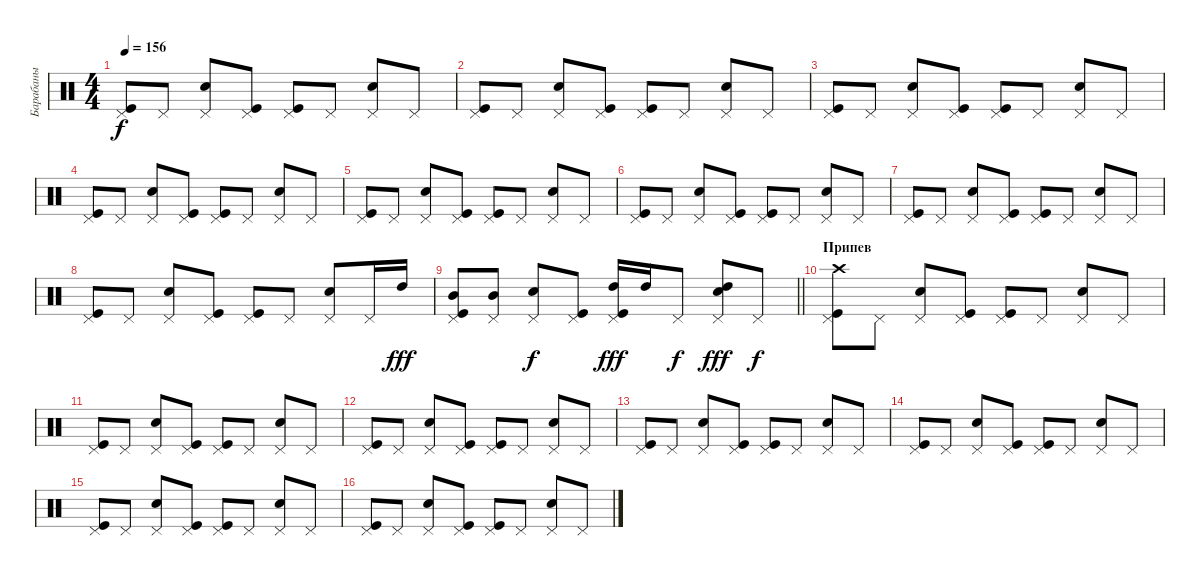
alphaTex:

\track ("Барабаны" "Барабаны") {instrument percussion}
\staff {score}
\articulation defaults
\ts (4 4)
\tempo 156
\clef neutral
\ks c
("Kick (hit)" "Pedal Hi-Hat (hit)").8{dy f} "Pedal Hi-Hat (hit)".8 ("Snare (hit) 2" "Pedal Hi-Hat (hit)").8 ("Kick (hit)" "Pedal Hi-Hat (hit)").8 ("Kick (hit)" "Pedal Hi-Hat (hit)").8 "Pedal Hi-Hat (hit)".8 ("Snare (hit) 2" "Pedal Hi-Hat (hit)").8 "Pedal Hi-Hat (hit)".8 |
("Kick (hit)" "Pedal Hi-Hat (hit)").8 "Pedal Hi-Hat (hit)".8 ("Snare (hit) 2" "Pedal Hi-Hat (hit)").8 ("Kick (hit)" "Pedal Hi-Hat (hit)").8 ("Kick (hit)" "Pedal Hi-Hat (hit)").8 "Pedal Hi-Hat (hit)".8 ("Snare (hit) 2" "Pedal Hi-Hat (hit)").8 "Pedal Hi-Hat (hit)".8 |
("Kick (hit)" "Pedal Hi-Hat (hit)").8 "Pedal Hi-Hat (hit)".8 ("Snare (hit) 2" "Pedal Hi-Hat (hit)").8 ("Kick (hit)" "Pedal Hi-Hat (hit)").8 ("Kick (hit)" "Pedal Hi-Hat (hit)").8 "Pedal Hi-Hat (hit)".8 ("Snare (hit) 2" "Pedal Hi-Hat (hit)").8 "Pedal Hi-Hat (hit)".8 |
("Kick (hit)" "Pedal Hi-Hat (hit)").8 "Pedal Hi-Hat (hit)".8 ("Snare (hit) 2" "Pedal Hi-Hat (hit)").8 ("Kick (hit)" "Pedal Hi-Hat (hit)").8 ("Kick (hit)" "Pedal Hi-Hat (hit)").8 "Pedal Hi-Hat (hit)".8 ("Snare (hit) 2" "Pedal Hi-Hat (hit)").8 "Pedal Hi-Hat (hit)".8 |
("Kick (hit)" "Pedal Hi-Hat (hit)").8 "Pedal Hi-Hat (hit)".8 ("Snare (hit) 2" "Pedal Hi-Hat (hit)").8 ("Kick (hit)" "Pedal Hi-Hat (hit)").8 ("Kick (hit)" "Pedal Hi-Hat (hit)").8 "Pedal Hi-Hat (hit)".8 ("Snare (hit) 2" "Pedal Hi-Hat (hit)").8 "Pedal Hi-Hat (hit)".8 |
("Kick (hit)" "Pedal Hi-Hat (hit)").8 "Pedal Hi-Hat (hit)".8 ("Snare (hit) 2" "Pedal Hi-Hat (hit)").8 ("Kick (hit)" "Pedal Hi-Hat (hit)").8 ("Kick (hit)" "Pedal Hi-Hat (hit)").8 "Pedal Hi-Hat (hit)".8 ("Snare (hit) 2" "Pedal Hi-Hat (hit)").8 "Pedal Hi-Hat (hit)".8 |
("Kick (hit)" "Pedal Hi-Hat (hit)").8 "Pedal Hi-Hat (hit)".8 ("Snare (hit) 2" "Pedal Hi-Hat (hit)").8 ("Kick (hit)" "Pedal Hi-Hat (hit)").8 ("Kick (hit)" "Pedal Hi-Hat (hit)").8 "Pedal Hi-Hat (hit)".8 ("Snare (hit) 2" "Pedal Hi-Hat (hit)").8 "Pedal Hi-Hat (hit)".8 |
("Kick (hit)" "Pedal Hi-Hat (hit)").8 "Pedal Hi-Hat (hit)".8 ("Snare (hit) 2" "Pedal Hi-Hat (hit)").8 ("Kick (hit)" "Pedal Hi-Hat (hit)").8 ("Kick (hit)" "Pedal Hi-Hat (hit)").8 "Pedal Hi-Hat (hit)".8 ("Snare (hit) 2" "Pedal Hi-Hat (hit)").8 "Pedal Hi-Hat (hit)".16 "High Tom (hit)".16{dy fff} |
\barLineRight lightlight
("Kick (hit)" "Pedal Hi-Hat (hit)" "Mid Tom (hit)").8 ("Pedal Hi-Hat (hit)" "Mid Tom (hit)").8 ("Snare (hit) 2" "Pedal Hi-Hat (hit)").8{dy f} ("Kick (hit)" "Pedal Hi-Hat (hit)").8 ("Kick (hit)" "Pedal Hi-Hat (hit)" "High Tom (hit)").16{dy fff} "High Tom (hit)".16 "Pedal Hi-Hat (hit)".8{dy f} ("Snare (hit) 2" "Pedal Hi-Hat (hit)" "High Tom (hit)").8{dy fff} "Pedal Hi-Hat (hit)".8{dy f} |
\section ("" "Припев")
("Kick (hit)" "Pedal Hi-Hat (hit)" "Crash high (hit)").8 "Pedal Hi-Hat (hit)".8 ("Snare (hit) 2" "Pedal Hi-Hat (hit)").8 ("Kick (hit)" "Pedal Hi-Hat (hit)").8 ("Kick (hit)" "Pedal Hi-Hat (hit)").8 "Pedal Hi-Hat (hit)".8 ("Snare (hit) 2" "Pedal Hi-Hat (hit)").8 "Pedal Hi-Hat (hit)".8 |
("Kick (hit)" "Pedal Hi-Hat (hit)").8 "Pedal Hi-Hat (hit)".8 ("Snare (hit) 2" "Pedal Hi-Hat (hit)").8 ("Kick (hit)" "Pedal Hi-Hat (hit)").8 ("Kick (hit)" "Pedal Hi-Hat (hit)").8 "Pedal Hi-Hat (hit)".8 ("Snare (hit) 2" "Pedal Hi-Hat (hit)").8 "Pedal Hi-Hat (hit)".8 |
("Kick (hit)" "Pedal Hi-Hat (hit)").8 "Pedal Hi-Hat (hit)".8 ("Snare (hit) 2" "Pedal Hi-Hat (hit)").8 ("Kick (hit)" "Pedal Hi-Hat (hit)").8 ("Kick (hit)" "Pedal Hi-Hat (hit)").8 "Pedal Hi-Hat (hit)".8 ("Snare (hit) 2" "Pedal Hi-Hat (hit)").8 "Pedal Hi-Hat (hit)".8 |
("Kick (hit)" "Pedal Hi-Hat (hit)").8 "Pedal Hi-Hat (hit)".8 ("Snare (hit) 2" "Pedal Hi-Hat (hit)").8 ("Kick (hit)" "Pedal Hi-Hat (hit)").8 ("Kick (hit)" "Pedal Hi-Hat (hit)").8 "Pedal Hi-Hat (hit)".8 ("Snare (hit) 2" "Pedal Hi-Hat (hit)").8 "Pedal Hi-Hat (hit)".8 |
("Kick (hit)" "Pedal Hi-Hat (hit)").8 "Pedal Hi-Hat (hit)".8 ("Snare (hit) 2" "Pedal Hi-Hat (hit)").8 ("Kick (hit)" "Pedal Hi-Hat (hit)").8 ("Kick (hit)" "Pedal Hi-Hat (hit)").8 "Pedal Hi-Hat (hit)".8 ("Snare (hit) 2" "Pedal Hi-Hat (hit)").8 "Pedal Hi-Hat (hit)".8 |
("Kick (hit)" "Pedal Hi-Hat (hit)").8 "Pedal Hi-Hat (hit)".8 ("Snare (hit) 2" "Pedal Hi-Hat (hit)").8 ("Kick (hit)" "Pedal Hi-Hat (hit)").8 ("Kick (hit)" "Pedal Hi-Hat (hit)").8 "Pedal Hi-Hat (hit)".8 ("Snare (hit) 2" "Pedal Hi-Hat (hit)").8 "Pedal Hi-Hat (hit)".8 |
("Kick (hit)" "Pedal Hi-Hat (hit)").8 "Pedal Hi-Hat (hit)".8 ("Snare (hit) 2" "Pedal Hi-Hat (hit)").8 ("Kick (hit)" "Pedal Hi-Hat (hit)").8 ("Kick (hit)" "Pedal Hi-Hat (hit)").8 "Pedal Hi-Hat (hit)".8 ("Snare (hit) 2" "Pedal Hi-Hat (hit)").8 "Pedal Hi-Hat (hit)".8
